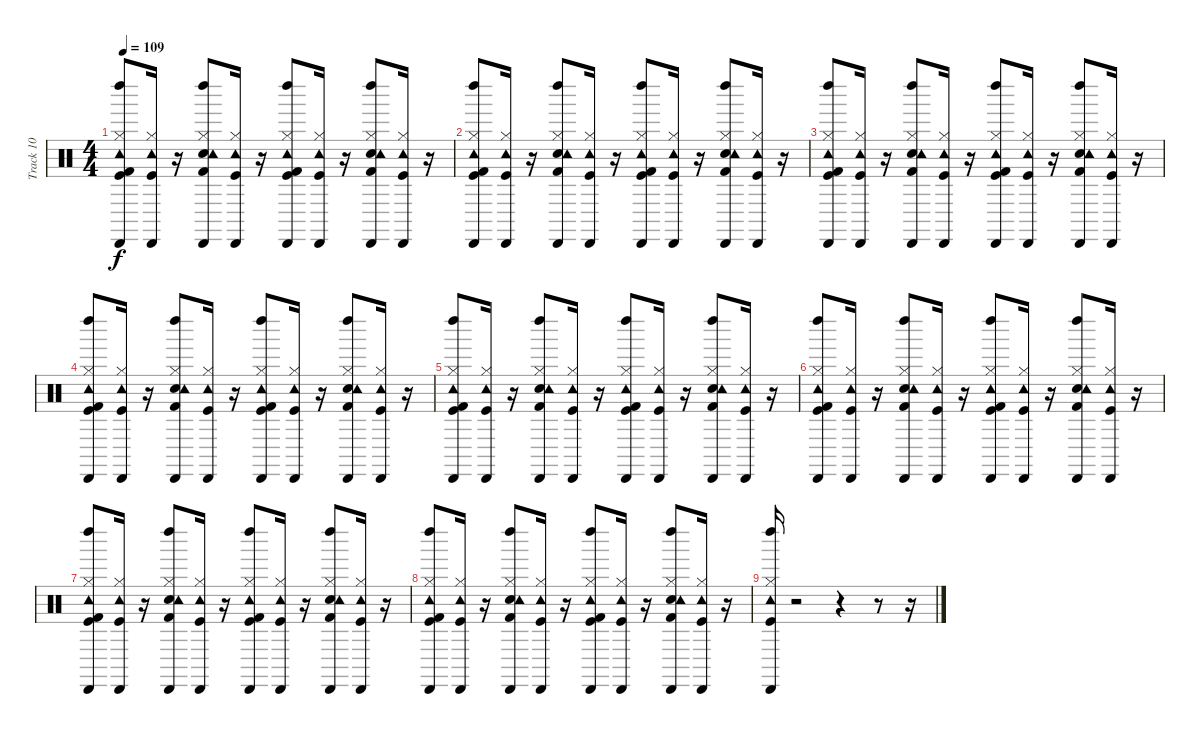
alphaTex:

\track ("Track 10" "Track 10") {instrument percussion}
\staff {score}
\articulation defaults
\ts (4 4)
\tempo 109
\clef neutral
\ks c
("Kick (hit)" "Hi-Hat (closed)" "Tambourine (hit)" "Left Maraca (hit)" "Cabasa (hit)" "Kick (hit) 2").8{dy f} ("Kick (hit)" "Hi-Hat (closed)" "Tambourine (hit)" "Cabasa (hit)").16 r.16 ("Snare (hit) 2" "Hi-Hat (closed)" "Tambourine (hit)" "Left Maraca (hit)" "Cabasa (hit)" "Kick (hit) 2").8 ("Kick (hit)" "Hi-Hat (closed)" "Tambourine (hit)" "Cabasa (hit)").16 r.16 ("Kick (hit)" "Hi-Hat (closed)" "Tambourine (hit)" "Left Maraca (hit)" "Cabasa (hit)" "Kick (hit) 2").8 ("Kick (hit)" "Hi-Hat (closed)" "Tambourine (hit)" "Cabasa (hit)").16 r.16 ("Snare (hit) 2" "Hi-Hat (closed)" "Tambourine (hit)" "Left Maraca (hit)" "Cabasa (hit)" "Kick (hit) 2").8 ("Kick (hit)" "Hi-Hat (closed)" "Tambourine (hit)" "Cabasa (hit)").16 r.16 |
("Kick (hit)" "Hi-Hat (closed)" "Tambourine (hit)" "Left Maraca (hit)" "Cabasa (hit)" "Kick (hit) 2").8 ("Kick (hit)" "Hi-Hat (closed)" "Tambourine (hit)" "Cabasa (hit)").16 r.16 ("Snare (hit) 2" "Hi-Hat (closed)" "Tambourine (hit)" "Left Maraca (hit)" "Cabasa (hit)" "Kick (hit) 2").8 ("Kick (hit)" "Hi-Hat (closed)" "Tambourine (hit)" "Cabasa (hit)").16 r.16 ("Kick (hit)" "Hi-Hat (closed)" "Tambourine (hit)" "Left Maraca (hit)" "Cabasa (hit)" "Kick (hit) 2").8 ("Kick (hit)" "Hi-Hat (closed)" "Tambourine (hit)" "Cabasa (hit)").16 r.16 ("Snare (hit) 2" "Hi-Hat (closed)" "Tambourine (hit)" "Left Maraca (hit)" "Cabasa (hit)" "Kick (hit) 2").8 ("Kick (hit)" "Hi-Hat (closed)" "Tambourine (hit)" "Cabasa (hit)").16 r.16 |
("Kick (hit)" "Hi-Hat (closed)" "Tambourine (hit)" "Left Maraca (hit)" "Cabasa (hit)" "Kick (hit) 2").8 ("Kick (hit)" "Hi-Hat (closed)" "Tambourine (hit)" "Cabasa (hit)").16 r.16 ("Snare (hit) 2" "Hi-Hat (closed)" "Tambourine (hit)" "Left Maraca (hit)" "Cabasa (hit)" "Kick (hit) 2").8 ("Kick (hit)" "Hi-Hat (closed)" "Tambourine (hit)" "Cabasa (hit)").16 r.16 ("Kick (hit)" "Hi-Hat (closed)" "Tambourine (hit)" "Left Maraca (hit)" "Cabasa (hit)" "Kick (hit) 2").8 ("Kick (hit)" "Hi-Hat (closed)" "Tambourine (hit)" "Cabasa (hit)").16 r.16 ("Snare (hit) 2" "Hi-Hat (closed)" "Tambourine (hit)" "Left Maraca (hit)" "Cabasa (hit)" "Kick (hit) 2").8 ("Kick (hit)" "Hi-Hat (closed)" "Tambourine (hit)" "Cabasa (hit)").16 r.16 |
("Kick (hit)" "Hi-Hat (closed)" "Tambourine (hit)" "Left Maraca (hit)" "Cabasa (hit)" "Kick (hit) 2").8 ("Kick (hit)" "Hi-Hat (closed)" "Tambourine (hit)" "Cabasa (hit)").16 r.16 ("Snare (hit) 2" "Hi-Hat (closed)" "Tambourine (hit)" "Left Maraca (hit)" "Cabasa (hit)" "Kick (hit) 2").8 ("Kick (hit)" "Hi-Hat (closed)" "Tambourine (hit)" "Cabasa (hit)").16 r.16 ("Kick (hit)" "Hi-Hat (closed)" "Tambourine (hit)" "Left Maraca (hit)" "Cabasa (hit)" "Kick (hit) 2").8 ("Kick (hit)" "Hi-Hat (closed)" "Tambourine (hit)" "Cabasa (hit)").16 r.16 ("Snare (hit) 2" "Hi-Hat (closed)" "Tambourine (hit)" "Left Maraca (hit)" "Cabasa (hit)" "Kick (hit) 2").8 ("Kick (hit)" "Hi-Hat (closed)" "Tambourine (hit)" "Cabasa (hit)").16 r.16 |
("Kick (hit)" "Hi-Hat (closed)" "Tambourine (hit)" "Left Maraca (hit)" "Cabasa (hit)" "Kick (hit) 2").8 ("Kick (hit)" "Hi-Hat (closed)" "Tambourine (hit)" "Cabasa (hit)").16 r.16 ("Snare (hit) 2" "Hi-Hat (closed)" "Tambourine (hit)" "Left Maraca (hit)" "Cabasa (hit)" "Kick (hit) 2").8 ("Kick (hit)" "Hi-Hat (closed)" "Tambourine (hit)" "Cabasa (hit)").16 r.16 ("Kick (hit)" "Hi-Hat (closed)" "Tambourine (hit)" "Left Maraca (hit)" "Cabasa (hit)" "Kick (hit) 2").8 ("Kick (hit)" "Hi-Hat (closed)" "Tambourine (hit)" "Cabasa (hit)").16 r.16 ("Snare (hit) 2" "Hi-Hat (closed)" "Tambourine (hit)" "Left Maraca (hit)" "Cabasa (hit)" "Kick (hit) 2").8 ("Kick (hit)" "Hi-Hat (closed)" "Tambourine (hit)" "Cabasa (hit)").16 r.16 |
("Kick (hit)" "Hi-Hat (closed)" "Tambourine (hit)" "Left Maraca (hit)" "Cabasa (hit)" "Kick (hit) 2").8 ("Kick (hit)" "Hi-Hat (closed)" "Tambourine (hit)" "Cabasa (hit)").16 r.16 ("Snare (hit) 2" "Hi-Hat (closed)" "Tambourine (hit)" "Left Maraca (hit)" "Cabasa (hit)" "Kick (hit) 2").8 ("Kick (hit)" "Hi-Hat (closed)" "Tambourine (hit)" "Cabasa (hit)").16 r.16 ("Kick (hit)" "Hi-Hat (closed)" "Tambourine (hit)" "Left Maraca (hit)" "Cabasa (hit)" "Kick (hit) 2").8 ("Kick (hit)" "Hi-Hat (closed)" "Tambourine (hit)" "Cabasa (hit)").16 r.16 ("Snare (hit) 2" "Hi-Hat (closed)" "Tambourine (hit)" "Left Maraca (hit)" "Cabasa (hit)" "Kick (hit) 2").8 ("Kick (hit)" "Hi-Hat (closed)" "Tambourine (hit)" "Cabasa (hit)").16 r.16 |
("Kick (hit)" "Hi-Hat (closed)" "Tambourine (hit)" "Left Maraca (hit)" "Cabasa (hit)" "Kick (hit) 2").8 ("Kick (hit)" "Hi-Hat (closed)" "Tambourine (hit)" "Cabasa (hit)").16 r.16 ("Snare (hit) 2" "Hi-Hat (closed)" "Tambourine (hit)" "Left Maraca (hit)" "Cabasa (hit)" "Kick (hit) 2").8 ("Kick (hit)" "Hi-Hat (closed)" "Tambourine (hit)" "Cabasa (hit)").16 r.16 ("Kick (hit)" "Hi-Hat (closed)" "Tambourine (hit)" "Left Maraca (hit)" "Cabasa (hit)" "Kick (hit) 2").8 ("Kick (hit)" "Hi-Hat (closed)" "Tambourine (hit)" "Cabasa (hit)").16 r.16 ("Snare (hit) 2" "Hi-Hat (closed)" "Tambourine (hit)" "Left Maraca (hit)" "Cabasa (hit)" "Kick (hit) 2").8 ("Kick (hit)" "Hi-Hat (closed)" "Tambourine (hit)" "Cabasa (hit)").16 r.16 |
("Kick (hit)" "Hi-Hat (closed)" "Tambourine (hit)" "Left Maraca (hit)" "Cabasa (hit)" "Kick (hit) 2").8 ("Kick (hit)" "Hi-Hat (closed)" "Tambourine (hit)" "Cabasa (hit)").16 r.16 ("Snare (hit) 2" "Hi-Hat (closed)" "Tambourine (hit)" "Left Maraca (hit)" "Cabasa (hit)" "Kick (hit) 2").8 ("Kick (hit)" "Hi-Hat (closed)" "Tambourine (hit)" "Cabasa (hit)").16 r.16 ("Kick (hit)" "Hi-Hat (closed)" "Tambourine (hit)" "Left Maraca (hit)" "Cabasa (hit)" "Kick (hit) 2").8 ("Kick (hit)" "Hi-Hat (closed)" "Tambourine (hit)" "Cabasa (hit)").16 r.16 ("Snare (hit) 2" "Hi-Hat (closed)" "Tambourine (hit)" "Left Maraca (hit)" "Cabasa (hit)" "Kick (hit) 2").8 ("Kick (hit)" "Hi-Hat (closed)" "Tambourine (hit)" "Cabasa (hit)").16 r.16 |
("Kick (hit)" "Hi-Hat (closed)" "Tambourine (hit)" "Left Maraca (hit)" "Cabasa (hit)").16 r.2 r.4 r.8 r.16
